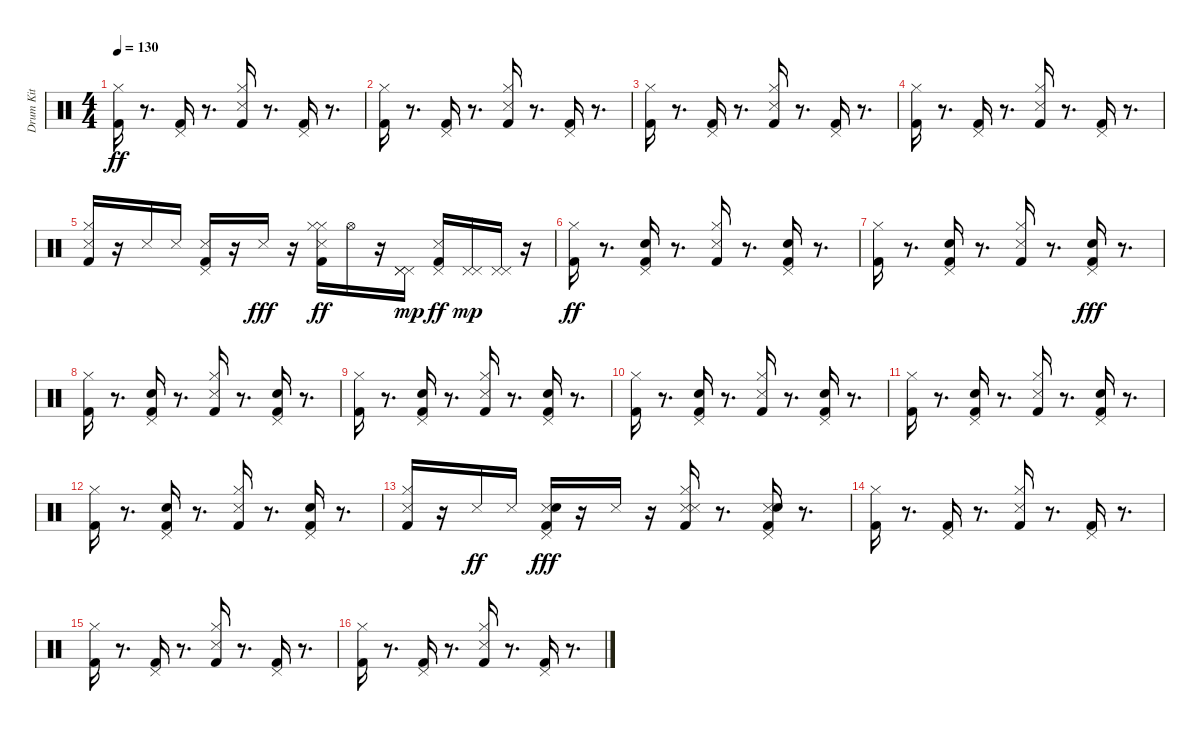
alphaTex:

\track ("Drum Kit" "Drum Kit") {instrument percussion}
\staff {score}
\articulation defaults
\ts (4 4)
\tempo 130
\clef neutral
\ks c
("Kick (hit) 2" "Hi-Hat (closed)").16{dy ff} r.8{d} ("Kick (hit) 2" "Pedal Hi-Hat (hit)").16 r.8{d} ("Kick (hit) 2" "Snare (side stick) 3" "Hi-Hat (closed)").16 r.8{d} ("Kick (hit) 2" "Pedal Hi-Hat (hit)").16 r.8{d} |
("Kick (hit) 2" "Hi-Hat (closed)").16 r.8{d} ("Kick (hit) 2" "Pedal Hi-Hat (hit)").16 r.8{d} ("Kick (hit) 2" "Snare (side stick) 3" "Hi-Hat (closed)").16 r.8{d} ("Kick (hit) 2" "Pedal Hi-Hat (hit)").16 r.8{d} |
("Kick (hit) 2" "Hi-Hat (closed)").16 r.8{d} ("Kick (hit) 2" "Pedal Hi-Hat (hit)").16 r.8{d} ("Kick (hit) 2" "Snare (side stick) 3" "Hi-Hat (closed)").16 r.8{d} ("Kick (hit) 2" "Pedal Hi-Hat (hit)").16 r.8{d} |
("Kick (hit) 2" "Hi-Hat (closed)").16 r.8{d} ("Kick (hit) 2" "Pedal Hi-Hat (hit)").16 r.8{d} ("Kick (hit) 2" "Snare (side stick) 3" "Hi-Hat (closed)").16 r.8{d} ("Kick (hit) 2" "Pedal Hi-Hat (hit)").16 r.8{d} |
("Kick (hit) 2" "Snare (side stick) 3" "Hi-Hat (closed)").16 r.16 "Snare (side stick) 3".16 "Snare (side stick) 3".16 ("Kick (hit) 2" "Snare (side stick) 3" "Pedal Hi-Hat (hit)").16 r.16 "Snare (side stick) 3".16{dy fff} r.16 ("Kick (hit) 2" "Snare (side stick) 3" "Hi-Hat (closed)" "Hi-Hat (closed)").16{dy ff} "Hi-Hat (open)".16 r.16 ("Pedal Hi-Hat (hit)" "Pedal Hi-Hat (hit)" "Pedal Hi-Hat (hit)").16{dy mp} ("Kick (hit) 2" "Snare (side stick) 3" "Pedal Hi-Hat (hit)").16{dy ff} ("Pedal Hi-Hat (hit)" "Pedal Hi-Hat (hit)").16{dy mp} ("Pedal Hi-Hat (hit)" "Pedal Hi-Hat (hit)").16 r.16 |
("Kick (hit) 2" "Hi-Hat (closed)").16{dy ff} r.8{d} ("Kick (hit) 2" "Electric Snare (hit)" "Pedal Hi-Hat (hit)").16 r.8{d} ("Kick (hit) 2" "Snare (side stick) 3" "Hi-Hat (closed)").16 r.8{d} ("Kick (hit) 2" "Electric Snare (hit)" "Pedal Hi-Hat (hit)").16 r.8{d} |
("Kick (hit) 2" "Hi-Hat (closed)").16 r.8{d} ("Kick (hit) 2" "Electric Snare (hit)" "Pedal Hi-Hat (hit)").16 r.8{d} ("Kick (hit) 2" "Snare (side stick) 3" "Hi-Hat (closed)").16 r.8{d} ("Kick (hit) 2" "Electric Snare (hit)" "Pedal Hi-Hat (hit)").16{dy fff} r.8{d} |
("Kick (hit) 2" "Hi-Hat (closed)").16 r.8{d} ("Kick (hit) 2" "Electric Snare (hit)" "Pedal Hi-Hat (hit)").16 r.8{d} ("Kick (hit) 2" "Snare (side stick) 3" "Hi-Hat (closed)").16 r.8{d} ("Kick (hit) 2" "Electric Snare (hit)" "Pedal Hi-Hat (hit)").16 r.8{d} |
("Kick (hit) 2" "Hi-Hat (closed)").16 r.8{d} ("Kick (hit) 2" "Electric Snare (hit)" "Pedal Hi-Hat (hit)").16 r.8{d} ("Kick (hit) 2" "Snare (side stick) 3" "Hi-Hat (closed)").16 r.8{d} ("Kick (hit) 2" "Electric Snare (hit)" "Pedal Hi-Hat (hit)").16 r.8{d} |
("Kick (hit) 2" "Hi-Hat (closed)").16 r.8{d} ("Kick (hit) 2" "Electric Snare (hit)" "Pedal Hi-Hat (hit)").16 r.8{d} ("Kick (hit) 2" "Snare (side stick) 3" "Hi-Hat (closed)").16 r.8{d} ("Kick (hit) 2" "Electric Snare (hit)" "Pedal Hi-Hat (hit)").16 r.8{d} |
("Kick (hit) 2" "Hi-Hat (closed)").16 r.8{d} ("Kick (hit) 2" "Electric Snare (hit)" "Pedal Hi-Hat (hit)").16 r.8{d} ("Kick (hit) 2" "Snare (side stick) 3" "Hi-Hat (closed)").16 r.8{d} ("Kick (hit) 2" "Electric Snare (hit)" "Pedal Hi-Hat (hit)").16 r.8{d} |
("Kick (hit) 2" "Hi-Hat (closed)").16 r.8{d} ("Kick (hit) 2" "Electric Snare (hit)" "Pedal Hi-Hat (hit)").16 r.8{d} ("Kick (hit) 2" "Snare (side stick) 3" "Hi-Hat (closed)").16 r.8{d} ("Kick (hit) 2" "Electric Snare (hit)" "Pedal Hi-Hat (hit)").16 r.8{d} |
("Kick (hit) 2" "Snare (side stick) 3" "Hi-Hat (closed)").16 r.16 "Snare (side stick) 3".16{dy ff} "Snare (side stick) 3".16 ("Kick (hit) 2" "Snare (side stick) 3" "Electric Snare (hit)" "Pedal Hi-Hat (hit)").16{dy fff} r.16 "Snare (side stick) 3".16 r.16 ("Kick (hit) 2" "Snare (side stick) 3" "Snare (side stick) 3" "Hi-Hat (closed)").16 r.8{d} ("Kick (hit) 2" "Snare (side stick) 3" "Electric Snare (hit)" "Pedal Hi-Hat (hit)").16 r.8{d} |
("Kick (hit) 2" "Hi-Hat (closed)").16 r.8{d} ("Kick (hit) 2" "Pedal Hi-Hat (hit)").16 r.8{d} ("Kick (hit) 2" "Snare (side stick) 3" "Hi-Hat (closed)").16 r.8{d} ("Kick (hit) 2" "Pedal Hi-Hat (hit)").16 r.8{d} |
("Kick (hit) 2" "Hi-Hat (closed)").16 r.8{d} ("Kick (hit) 2" "Pedal Hi-Hat (hit)").16 r.8{d} ("Kick (hit) 2" "Snare (side stick) 3" "Hi-Hat (closed)").16 r.8{d} ("Kick (hit) 2" "Pedal Hi-Hat (hit)").16 r.8{d} |
("Kick (hit) 2" "Hi-Hat (closed)").16 r.8{d} ("Kick (hit) 2" "Pedal Hi-Hat (hit)").16 r.8{d} ("Kick (hit) 2" "Snare (side stick) 3" "Hi-Hat (closed)").16 r.8{d} ("Kick (hit) 2" "Pedal Hi-Hat (hit)").16 r.8{d}
